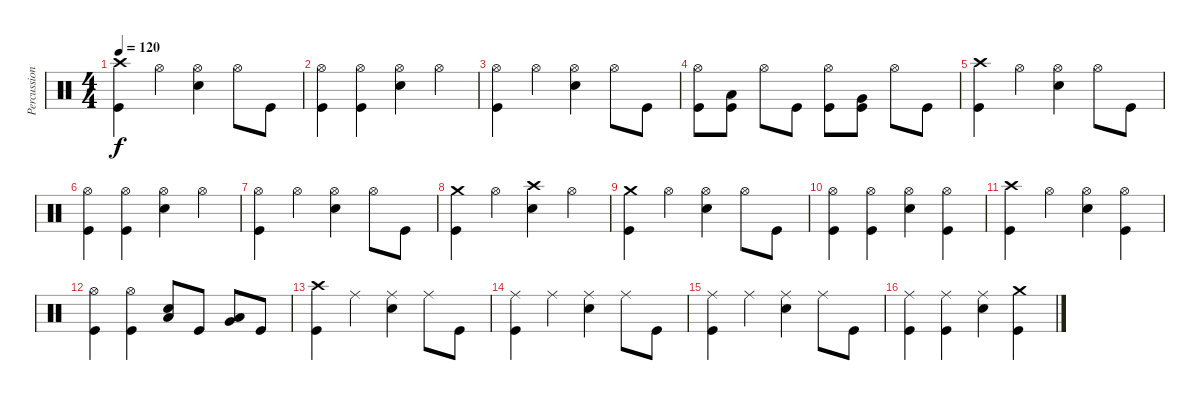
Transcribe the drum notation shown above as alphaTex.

\track ("Percussion" "Percussion") {instrument percussion}
\staff {score}
\articulation defaults
\ts (4 4)
\tempo 120
\clef neutral
\ks c
("Crash high (hit)" "Kick (hit)").4{dy f} "Hi-Hat (open)".4 ("Hi-Hat (open)" "Snare (hit) 2").4 "Hi-Hat (open)".8 "Kick (hit)".8 |
("Hi-Hat (open)" "Kick (hit)").4 ("Hi-Hat (open)" "Kick (hit)").4 ("Hi-Hat (open)" "Snare (hit) 2").4 "Hi-Hat (open)".4 |
("Hi-Hat (open)" "Kick (hit)").4 "Hi-Hat (open)".4 ("Hi-Hat (open)" "Snare (hit) 2").4 "Hi-Hat (open)".8 "Kick (hit)".8 |
("Hi-Hat (open)" "Kick (hit)").8 ("Kick (hit)" "Low Tom (hit)").8 "Hi-Hat (open)".8 "Kick (hit)".8 ("Hi-Hat (open)" "Kick (hit)").8 ("Kick (hit)" "Very Low Tom (hit)").8 "Hi-Hat (open)".8 "Kick (hit)".8 |
("Crash high (hit)" "Kick (hit)").4 "Hi-Hat (open)".4 ("Hi-Hat (open)" "Snare (hit) 2").4 "Hi-Hat (open)".8 "Kick (hit)".8 |
("Hi-Hat (open)" "Kick (hit)").4 ("Hi-Hat (open)" "Kick (hit)").4 ("Hi-Hat (open)" "Snare (hit) 2").4 "Hi-Hat (open)".4 |
("Hi-Hat (open)" "Kick (hit)").4 "Hi-Hat (open)".4 ("Hi-Hat (open)" "Snare (hit) 2").4 "Hi-Hat (open)".8 "Kick (hit)".8 |
("Crash medium (hit)" "Kick (hit)").4 "Hi-Hat (open)".4 ("Crash high (hit)" "Snare (hit) 2").4 "Hi-Hat (open)".4 |
("Crash medium (hit)" "Kick (hit)").4 "Hi-Hat (open)".4 ("Hi-Hat (open)" "Snare (hit) 2").4 "Hi-Hat (open)".8 "Kick (hit)".8 |
("Hi-Hat (open)" "Kick (hit)").4 ("Hi-Hat (open)" "Kick (hit)").4 ("Hi-Hat (open)" "Snare (hit) 2").4 ("Hi-Hat (open)" "Kick (hit)").4 |
("Crash high (hit)" "Kick (hit)").4 "Hi-Hat (open)".4 ("Hi-Hat (open)" "Snare (hit) 2").4 ("Hi-Hat (open)" "Kick (hit)").4 |
("Hi-Hat (open)" "Kick (hit)").4 ("Hi-Hat (open)" "Kick (hit)").4 ("Low Tom (hit)" "Snare (hit) 2").8 "Kick (hit)".8 ("Very Low Tom (hit)" "Low Tom (hit)").8 "Kick (hit)".8 |
("Crash high (hit)" "Kick (hit)").4 "Ride (middle)".4 ("Ride (middle)" "Snare (hit) 2").4 "Ride (middle)".8 "Kick (hit)".8 |
("Ride (middle)" "Kick (hit)").4 "Ride (middle)".4 ("Ride (middle)" "Snare (hit) 2").4 "Ride (middle)".8 "Kick (hit)".8 |
("Ride (middle)" "Kick (hit)").4 "Ride (middle)".4 ("Ride (middle)" "Snare (hit) 2").4 "Ride (middle)".8 "Kick (hit)".8 |
("Ride (middle)" "Kick (hit)").4 ("Ride (middle)" "Kick (hit)").4 ("Ride (middle)" "Snare (hit) 2").4 ("Crash medium (hit)" "Kick (hit)").4
